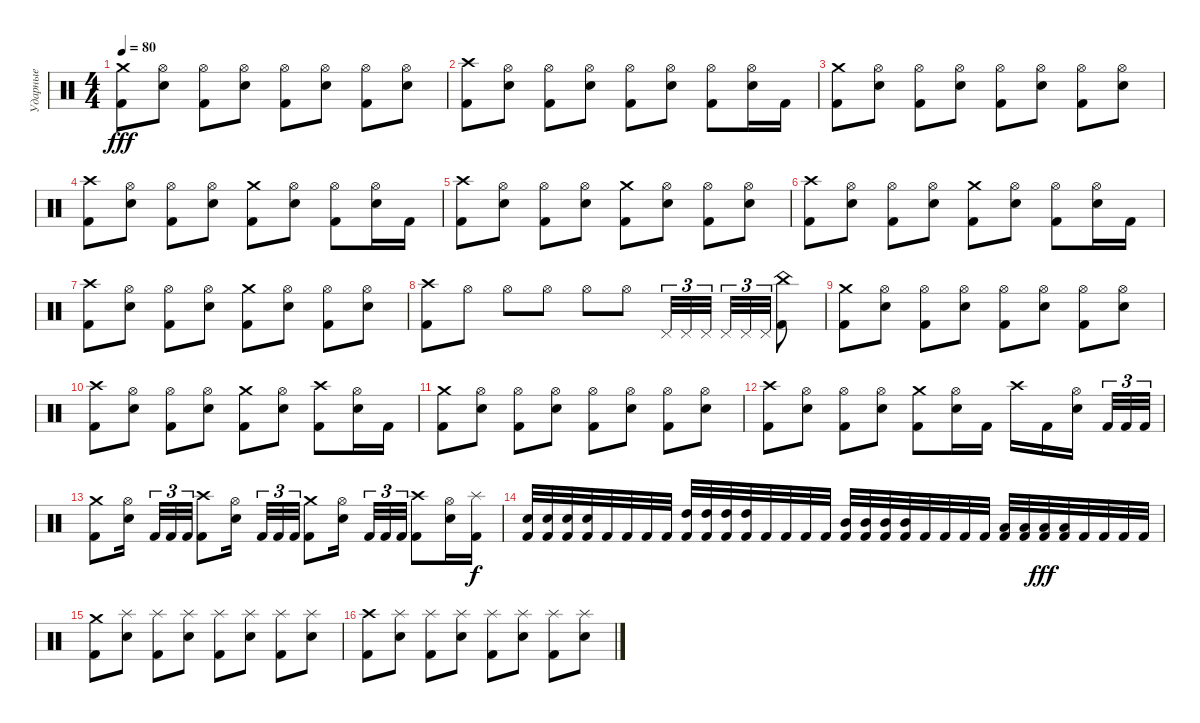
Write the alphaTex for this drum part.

\track ("Ударные" "Ударные") {instrument percussion}
\staff {score}
\articulation defaults
\ts (4 4)
\tempo 80
\clef neutral
\ks c
("Crash medium (hit)" "Kick (hit) 2").8{dy fff} ("Hi-Hat (open)" "Electric Snare (hit)").8 ("Hi-Hat (open)" "Kick (hit) 2").8 ("Hi-Hat (open)" "Electric Snare (hit)").8 ("Hi-Hat (open)" "Kick (hit) 2").8 ("Hi-Hat (open)" "Electric Snare (hit)").8 ("Hi-Hat (open)" "Kick (hit) 2").8 ("Hi-Hat (open)" "Electric Snare (hit)").8 |
("Crash high (hit)" "Kick (hit) 2").8 ("Hi-Hat (open)" "Electric Snare (hit)").8 ("Hi-Hat (open)" "Kick (hit) 2").8 ("Hi-Hat (open)" "Electric Snare (hit)").8 ("Hi-Hat (open)" "Kick (hit) 2").8 ("Hi-Hat (open)" "Electric Snare (hit)").8 ("Hi-Hat (open)" "Kick (hit) 2").8 ("Hi-Hat (open)" "Electric Snare (hit)").16 "Kick (hit) 2".16 |
("Crash medium (hit)" "Kick (hit) 2").8 ("Hi-Hat (open)" "Electric Snare (hit)").8 ("Hi-Hat (open)" "Kick (hit) 2").8 ("Hi-Hat (open)" "Electric Snare (hit)").8 ("Hi-Hat (open)" "Kick (hit) 2").8 ("Hi-Hat (open)" "Electric Snare (hit)").8 ("Hi-Hat (open)" "Kick (hit) 2").8 ("Hi-Hat (open)" "Electric Snare (hit)").8 |
("Crash high (hit)" "Kick (hit) 2").8 ("Hi-Hat (open)" "Electric Snare (hit)").8 ("Hi-Hat (open)" "Kick (hit) 2").8 ("Hi-Hat (open)" "Electric Snare (hit)").8 ("Crash medium (hit)" "Kick (hit) 2").8 ("Hi-Hat (open)" "Electric Snare (hit)").8 ("Hi-Hat (open)" "Kick (hit) 2").8 ("Hi-Hat (open)" "Electric Snare (hit)").16 "Kick (hit) 2".16 |
("Crash high (hit)" "Kick (hit) 2").8 ("Hi-Hat (open)" "Electric Snare (hit)").8 ("Hi-Hat (open)" "Kick (hit) 2").8 ("Hi-Hat (open)" "Electric Snare (hit)").8 ("Crash medium (hit)" "Kick (hit) 2").8 ("Hi-Hat (open)" "Electric Snare (hit)").8 ("Hi-Hat (open)" "Kick (hit) 2").8 ("Hi-Hat (open)" "Electric Snare (hit)").8 |
("Crash high (hit)" "Kick (hit) 2").8 ("Hi-Hat (open)" "Electric Snare (hit)").8 ("Hi-Hat (open)" "Kick (hit) 2").8 ("Hi-Hat (open)" "Electric Snare (hit)").8 ("Crash medium (hit)" "Kick (hit) 2").8 ("Hi-Hat (open)" "Electric Snare (hit)").8 ("Hi-Hat (open)" "Kick (hit) 2").8 ("Hi-Hat (open)" "Electric Snare (hit)").16 "Kick (hit) 2".16 |
("Crash high (hit)" "Kick (hit) 2").8 ("Hi-Hat (open)" "Electric Snare (hit)").8 ("Hi-Hat (open)" "Kick (hit) 2").8 ("Hi-Hat (open)" "Electric Snare (hit)").8 ("Crash medium (hit)" "Kick (hit) 2").8 ("Hi-Hat (open)" "Electric Snare (hit)").8 ("Hi-Hat (open)" "Kick (hit) 2").8 ("Hi-Hat (open)" "Electric Snare (hit)").8 |
("Crash high (hit)" "Kick (hit) 2").8 "Hi-Hat (open)".8 "Hi-Hat (open)".8 "Hi-Hat (open)".8 "Hi-Hat (open)".8 "Hi-Hat (open)".8 "Pedal Hi-Hat (hit)".32{tu (3 2)} "Pedal Hi-Hat (hit)".32{tu (3 2)} "Pedal Hi-Hat (hit)".32{tu (3 2) beam splitsecondary} "Pedal Hi-Hat (hit)".32{tu (3 2)} "Pedal Hi-Hat (hit)".32{tu (3 2)} "Pedal Hi-Hat (hit)".32{tu (3 2)} ("China (hit)" "Kick (hit) 2").8 |
("Crash medium (hit)" "Kick (hit) 2").8 ("Hi-Hat (open)" "Electric Snare (hit)").8 ("Hi-Hat (open)" "Kick (hit) 2").8 ("Hi-Hat (open)" "Electric Snare (hit)").8 ("Hi-Hat (open)" "Kick (hit) 2").8 ("Hi-Hat (open)" "Electric Snare (hit)").8 ("Hi-Hat (open)" "Kick (hit) 2").8 ("Hi-Hat (open)" "Electric Snare (hit)").8 |
("Crash high (hit)" "Kick (hit) 2").8 ("Hi-Hat (open)" "Electric Snare (hit)").8 ("Hi-Hat (open)" "Kick (hit) 2").8 ("Hi-Hat (open)" "Electric Snare (hit)").8 ("Crash medium (hit)" "Kick (hit) 2").8 ("Hi-Hat (open)" "Electric Snare (hit)").8 ("Crash high (hit)" "Kick (hit) 2").8 ("Hi-Hat (open)" "Electric Snare (hit)").16 "Kick (hit) 2".16 |
("Crash medium (hit)" "Kick (hit) 2").8 ("Hi-Hat (open)" "Electric Snare (hit)").8 ("Hi-Hat (open)" "Kick (hit) 2").8 ("Hi-Hat (open)" "Electric Snare (hit)").8 ("Hi-Hat (open)" "Kick (hit) 2").8 ("Hi-Hat (open)" "Electric Snare (hit)").8 ("Hi-Hat (open)" "Kick (hit) 2").8 ("Hi-Hat (open)" "Electric Snare (hit)").8 |
("Crash high (hit)" "Kick (hit) 2").8 ("Hi-Hat (open)" "Electric Snare (hit)").8 ("Hi-Hat (open)" "Kick (hit) 2").8 ("Hi-Hat (open)" "Electric Snare (hit)").8 ("Crash medium (hit)" "Kick (hit) 2").8 ("Hi-Hat (open)" "Electric Snare (hit)").16 "Kick (hit) 2".16 "Crash high (hit)".16 "Kick (hit) 2".16 ("Hi-Hat (open)" "Electric Snare (hit)").16{beam splitsecondary} "Kick (hit) 2".32{tu (3 2)} "Kick (hit) 2".32{tu (3 2)} "Kick (hit) 2".32{tu (3 2)} |
("Crash medium (hit)" "Kick (hit) 2").8 ("Hi-Hat (open)" "Electric Snare (hit)").16{beam splitsecondary} "Kick (hit) 2".32{tu (3 2)} "Kick (hit) 2".32{tu (3 2)} "Kick (hit) 2".32{tu (3 2)} ("Crash high (hit)" "Kick (hit) 2").8 ("Hi-Hat (open)" "Electric Snare (hit)").16{beam splitsecondary} "Kick (hit) 2".32{tu (3 2)} "Kick (hit) 2".32{tu (3 2)} "Kick (hit) 2".32{tu (3 2)} ("Crash medium (hit)" "Kick (hit) 2").8 ("Hi-Hat (open)" "Electric Snare (hit)").16{beam splitsecondary} "Kick (hit) 2".32{tu (3 2)} "Kick (hit) 2".32{tu (3 2)} "Kick (hit) 2".32{tu (3 2)} ("Crash high (hit)" "Kick (hit) 2").8 ("Hi-Hat (open)" "Electric Snare (hit)").16 ("Splash (hit)" "Kick (hit) 2").16{dy f} |
("Electric Snare (hit)" "Kick (hit) 2").32 ("Electric Snare (hit)" "Kick (hit) 2").32 ("Electric Snare (hit)" "Kick (hit) 2").32 ("Electric Snare (hit)" "Kick (hit) 2").32 "Kick (hit) 2".32 "Kick (hit) 2".32 "Kick (hit) 2".32 "Kick (hit) 2".32 ("High Tom (hit)" "Kick (hit) 2").32 ("High Tom (hit)" "Kick (hit) 2").32 ("High Tom (hit)" "Kick (hit) 2").32 ("High Tom (hit)" "Kick (hit) 2").32 "Kick (hit) 2".32 "Kick (hit) 2".32 "Kick (hit) 2".32 "Kick (hit) 2".32 ("Mid Tom (hit)" "Kick (hit) 2").32 ("Mid Tom (hit)" "Kick (hit) 2").32 ("Mid Tom (hit)" "Kick (hit) 2").32 ("Mid Tom (hit)" "Kick (hit) 2").32 "Kick (hit) 2".32 "Kick (hit) 2".32 "Kick (hit) 2".32 "Kick (hit) 2".32 ("Low Tom (hit)" "Kick (hit) 2").32 ("Low Tom (hit)" "Kick (hit) 2").32 ("Low Tom (hit)" "Kick (hit) 2").32{dy fff} ("Low Tom (hit)" "Kick (hit) 2").32 "Kick (hit) 2".32 "Kick (hit) 2".32 "Kick (hit) 2".32 "Kick (hit) 2".32 |
("Crash medium (hit)" "Kick (hit) 2").8 ("Splash (hit)" "Electric Snare (hit)").8 ("Splash (hit)" "Kick (hit) 2").8 ("Splash (hit)" "Electric Snare (hit)").8 ("Splash (hit)" "Kick (hit) 2").8 ("Splash (hit)" "Electric Snare (hit)").8 ("Splash (hit)" "Kick (hit) 2").8 ("Splash (hit)" "Electric Snare (hit)").8 |
("Crash high (hit)" "Kick (hit) 2").8 ("Splash (hit)" "Electric Snare (hit)").8 ("Splash (hit)" "Kick (hit) 2").8 ("Splash (hit)" "Electric Snare (hit)").8 ("Splash (hit)" "Kick (hit) 2").8 ("Splash (hit)" "Electric Snare (hit)").8 ("Splash (hit)" "Kick (hit) 2").8 ("Splash (hit)" "Electric Snare (hit)").8
